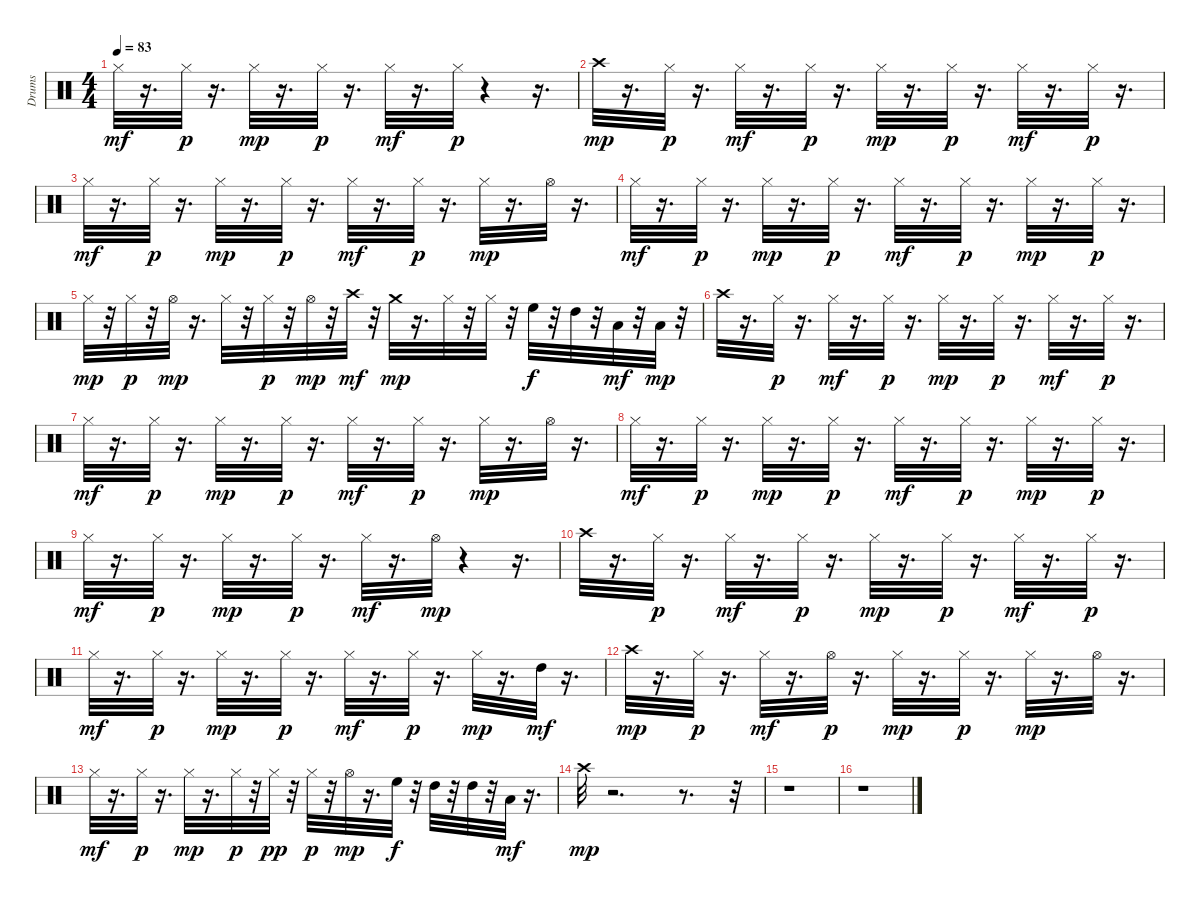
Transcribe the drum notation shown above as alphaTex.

\track ("Drums" "Drums") {instrument percussion}
\staff {score}
\articulation defaults
\ts (4 4)
\tempo 83
\clef neutral
\ks c "Hi-Hat (closed)".32{dy mf}
r.16{d} "Hi-Hat (closed)".32{dy p} r.16{d} "Hi-Hat (closed)".32{dy mp} r.16{d} "Hi-Hat (closed)".32{dy p} r.16{d} "Hi-Hat (closed)".32{dy mf} r.16{d} "Hi-Hat (closed)".32{dy p} r.4 r.16{d} |
"Crash high (hit)".32{dy mp} r.16{d} "Hi-Hat (closed)".32{dy p} r.16{d} "Hi-Hat (closed)".32{dy mf} r.16{d} "Hi-Hat (closed)".32{dy p} r.16{d} "Hi-Hat (closed)".32{dy mp} r.16{d} "Hi-Hat (closed)".32{dy p} r.16{d} "Hi-Hat (closed)".32{dy mf} r.16{d} "Hi-Hat (closed)".32{dy p} r.16{d} |
"Hi-Hat (closed)".32{dy mf} r.16{d} "Hi-Hat (closed)".32{dy p} r.16{d} "Hi-Hat (closed)".32{dy mp} r.16{d} "Hi-Hat (closed)".32{dy p} r.16{d} "Hi-Hat (closed)".32{dy mf} r.16{d} "Hi-Hat (closed)".32{dy p} r.16{d} "Hi-Hat (closed)".32{dy mp} r.16{d} "Hi-Hat (open)".32 r.16{d} |
"Hi-Hat (closed)".32{dy mf} r.16{d} "Hi-Hat (closed)".32{dy p} r.16{d} "Hi-Hat (closed)".32{dy mp} r.16{d} "Hi-Hat (closed)".32{dy p} r.16{d} "Hi-Hat (closed)".32{dy mf} r.16{d} "Hi-Hat (closed)".32{dy p} r.16{d} "Hi-Hat (closed)".32{dy mp} r.16{d} "Hi-Hat (closed)".32{dy p} r.16{d} |
"Hi-Hat (closed)".32{dy mp} r.32 "Hi-Hat (closed)".32{dy p} r.32 "Hi-Hat (open)".32{dy mp} r.16{d} "Hi-Hat (closed)".32 r.32 "Hi-Hat (closed)".32{dy p} r.32 "Hi-Hat (open)".32{dy mp} r.32 "Crash high (hit)".32{dy mf} r.32 "Crash medium (hit)".32{dy mp} r.16{d} "Hi-Hat (closed)".32 r.32 "Hi-Hat (closed)".32 r.32 "High Floor Tom (hit)".32{dy f} r.32 "High Tom (hit)".32 r.32 "Low Tom (hit)".32{dy mf} r.32 "Low Floor Tom (hit)".32{dy mp} r.32 |
"Crash high (hit)".32 r.16{d} "Hi-Hat (closed)".32{dy p} r.16{d} "Hi-Hat (closed)".32{dy mf} r.16{d} "Hi-Hat (closed)".32{dy p} r.16{d} "Hi-Hat (closed)".32{dy mp} r.16{d} "Hi-Hat (closed)".32{dy p} r.16{d} "Hi-Hat (closed)".32{dy mf} r.16{d} "Hi-Hat (closed)".32{dy p} r.16{d} |
"Hi-Hat (closed)".32{dy mf} r.16{d} "Hi-Hat (closed)".32{dy p} r.16{d} "Hi-Hat (closed)".32{dy mp} r.16{d} "Hi-Hat (closed)".32{dy p} r.16{d} "Hi-Hat (closed)".32{dy mf} r.16{d} "Hi-Hat (closed)".32{dy p} r.16{d} "Hi-Hat (closed)".32{dy mp} r.16{d} "Hi-Hat (open)".32 r.16{d} |
"Hi-Hat (closed)".32{dy mf} r.16{d} "Hi-Hat (closed)".32{dy p} r.16{d} "Hi-Hat (closed)".32{dy mp} r.16{d} "Hi-Hat (closed)".32{dy p} r.16{d} "Hi-Hat (closed)".32{dy mf} r.16{d} "Hi-Hat (closed)".32{dy p} r.16{d} "Hi-Hat (closed)".32{dy mp} r.16{d} "Hi-Hat (closed)".32{dy p} r.16{d} |
"Hi-Hat (closed)".32{dy mf} r.16{d} "Hi-Hat (closed)".32{dy p} r.16{d} "Hi-Hat (closed)".32{dy mp} r.16{d} "Hi-Hat (closed)".32{dy p} r.16{d} "Hi-Hat (closed)".32{dy mf} r.16{d} "Hi-Hat (open)".32{dy mp} r.4 r.16{d} |
"Crash high (hit)".32 r.16{d} "Hi-Hat (closed)".32{dy p} r.16{d} "Hi-Hat (closed)".32{dy mf} r.16{d} "Hi-Hat (closed)".32{dy p} r.16{d} "Hi-Hat (closed)".32{dy mp} r.16{d} "Hi-Hat (closed)".32{dy p} r.16{d} "Hi-Hat (closed)".32{dy mf} r.16{d} "Hi-Hat (closed)".32{dy p} r.16{d} |
"Hi-Hat (closed)".32{dy mf} r.16{d} "Hi-Hat (closed)".32{dy p} r.16{d} "Hi-Hat (closed)".32{dy mp} r.16{d} "Hi-Hat (closed)".32{dy p} r.16{d} "Hi-Hat (closed)".32{dy mf} r.16{d} "Hi-Hat (closed)".32{dy p} r.16{d} "Hi-Hat (closed)".32{dy mp} r.16{d} "High Tom (hit)".32{dy mf} r.16{d} |
"Crash high (hit)".32{dy mp} r.16{d} "Hi-Hat (closed)".32{dy p} r.16{d} "Hi-Hat (closed)".32{dy mf} r.16{d} "Hi-Hat (open)".32{dy p} r.16{d} "Hi-Hat (closed)".32{dy mp} r.16{d} "Hi-Hat (closed)".32{dy p} r.16{d} "Hi-Hat (closed)".32{dy mp} r.16{d} "Hi-Hat (open)".32 r.16{d} |
"Hi-Hat (closed)".32{dy mf} r.16{d} "Hi-Hat (closed)".32{dy p} r.16{d} "Hi-Hat (closed)".32{dy mp} r.16{d} "Hi-Hat (closed)".32{dy p} r.32 "Hi-Hat (closed)".32{dy pp} r.32 "Hi-Hat (closed)".32{dy p} r.32 "Hi-Hat (open)".32{dy mp} r.16{d} "High Floor Tom (hit)".32{dy f} r.32 "High Tom (hit)".32 r.32 "High Tom (hit)".32 r.32 "Low Tom (hit)".32{dy mf} r.16{d} |
"Crash high (hit)".32{dy mp} r.2{d} r.8{d} r.32 |
r.1 |
r.1
